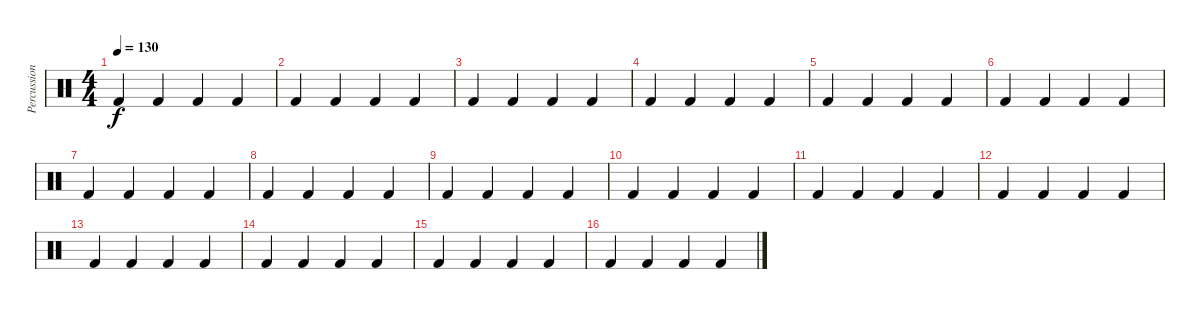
\track ("Percussion" "Percussion") {instrument percussion}
\staff {score}
\articulation defaults
\ts (4 4)
\tempo 130
\clef neutral
\ks c "Kick (hit) 2".4{dy f} "Kick (hit) 2".4 "Kick (hit) 2".4 "Kick (hit) 2".4
|
"Kick (hit) 2".4 "Kick (hit) 2".4 "Kick (hit) 2".4 "Kick (hit) 2".4 |
"Kick (hit) 2".4 "Kick (hit) 2".4 "Kick (hit) 2".4 "Kick (hit) 2".4 |
"Kick (hit) 2".4 "Kick (hit) 2".4 "Kick (hit) 2".4 "Kick (hit) 2".4 |
"Kick (hit) 2".4 "Kick (hit) 2".4 "Kick (hit) 2".4 "Kick (hit) 2".4 |
"Kick (hit) 2".4 "Kick (hit) 2".4 "Kick (hit) 2".4 "Kick (hit) 2".4 |
"Kick (hit) 2".4 "Kick (hit) 2".4 "Kick (hit) 2".4 "Kick (hit) 2".4 |
"Kick (hit) 2".4 "Kick (hit) 2".4 "Kick (hit) 2".4 "Kick (hit) 2".4 |
"Kick (hit) 2".4 "Kick (hit) 2".4 "Kick (hit) 2".4 "Kick (hit) 2".4 |
"Kick (hit) 2".4 "Kick (hit) 2".4 "Kick (hit) 2".4 "Kick (hit) 2".4 |
"Kick (hit) 2".4 "Kick (hit) 2".4 "Kick (hit) 2".4 "Kick (hit) 2".4 |
"Kick (hit) 2".4 "Kick (hit) 2".4 "Kick (hit) 2".4 "Kick (hit) 2".4 |
"Kick (hit) 2".4 "Kick (hit) 2".4 "Kick (hit) 2".4 "Kick (hit) 2".4 |
"Kick (hit) 2".4 "Kick (hit) 2".4 "Kick (hit) 2".4 "Kick (hit) 2".4 |
"Kick (hit) 2".4 "Kick (hit) 2".4 "Kick (hit) 2".4 "Kick (hit) 2".4 |
"Kick (hit) 2".4 "Kick (hit) 2".4 "Kick (hit) 2".4 "Kick (hit) 2".4
